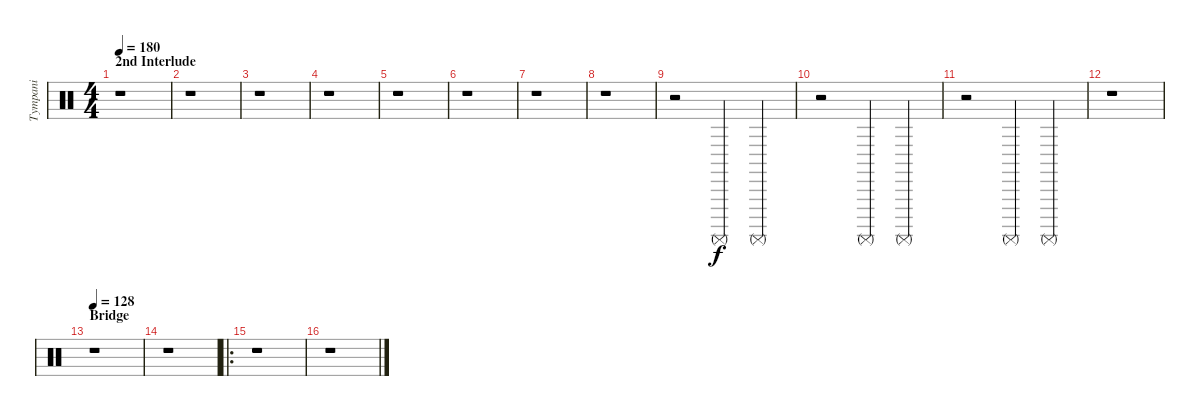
\track ("Tympani" "Tympani") {instrument percussion}
\staff {score}
\articulation defaults
\ts (4 4)
\section ("" "2nd Interlude")
\tempo 180
\clef neutral
\ks c
r.1{dy f} |
r.1 |
r.1 |
r.1 |
r.1 |
r.1 |
r.1 |
r.1 |
r.2 "Surdo (mute)".4 "Surdo (mute)".4 |
r.2 "Surdo (mute)".4 "Surdo (mute)".4 |
r.2 "Surdo (mute)".4 "Surdo (mute)".4 |
r.1 |
\section ("" "Bridge")
\tempo 128
r.1 |
r.1 |
\ro
r.1 |
r.1
